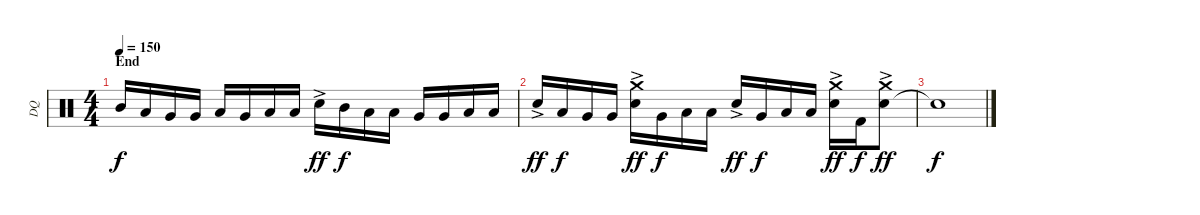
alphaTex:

\track ("DQ" "DQ") {instrument percussion}
\staff {score}
\articulation defaults
\ts (4 4)
\section ("" "End")
\tempo 150
\clef neutral
\ks c "Mid Tom (hit)".16{dy f} "Low Tom (hit)".16 "Very Low Tom (hit)".16 "Very Low Tom (hit)".16 "Low Tom (hit)".16 "Very Low Tom (hit)".16 "Low Floor Tom (hit)".16 "Low Floor Tom (hit)".16 "Snare (hit) 2"{ac}.16{dy ff} "Mid Tom (hit)".16{dy f} "Low Tom (hit)".16 "Low Tom (hit)".16 "Very Low Tom (hit)".16 "Very Low Tom (hit)".16 "Low Floor Tom (hit)".16 "Low Floor Tom (hit)".16
|
"Snare (hit) 2"{ac}.16{dy ff} "Low Tom (hit)".16{dy f} "Very Low Tom (hit)".16 "Very Low Tom (hit)".16 ("Snare (hit) 2"{ac} "Crash medium (hit)").16{dy ff} "Very Low Tom (hit)".16{dy f} "Low Floor Tom (hit)".16 "Low Floor Tom (hit)".16 "Snare (hit) 2"{ac}.16{dy ff} "Very Low Tom (hit)".16{dy f} "Low Floor Tom (hit)".16 "Low Floor Tom (hit)".16 ("Snare (hit) 2"{ac} "Crash medium (hit)").16{dy ff} "Kick (hit) 2".16{dy f} ("Snare (hit) 2"{ac} "Crash medium (hit)").8{dy ff} |
"Snare (hit)"{t}.1{dy f}
